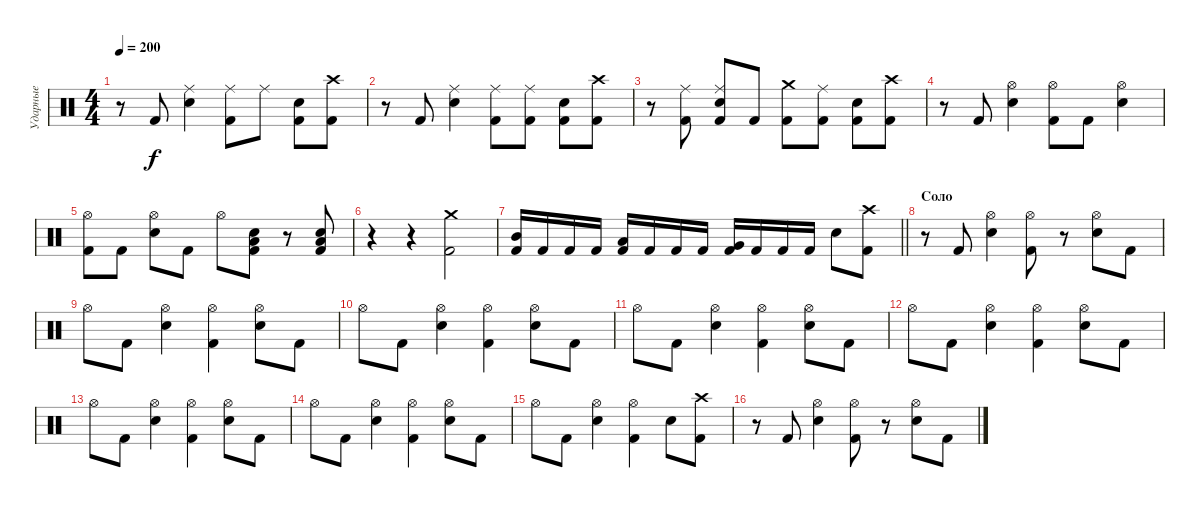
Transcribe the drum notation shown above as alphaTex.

\track ("Ударные" "Ударные") {instrument percussion}
\staff {score}
\articulation defaults
\ts (4 4)
\tempo 200
\clef neutral
\ks c
r.8{dy f} "Kick (hit) 2".8 ("Ride (middle)" "Electric Snare (hit)").4 ("Ride (middle)" "Kick (hit) 2").8 "Ride (middle)".8 ("Electric Snare (hit)" "Kick (hit) 2").8 ("Crash high (hit)" "Kick (hit) 2").8 |
r.8 "Kick (hit) 2".8 ("Ride (middle)" "Electric Snare (hit)").4 ("Ride (middle)" "Kick (hit) 2").8 ("Ride (middle)" "Kick (hit) 2").8 ("Electric Snare (hit)" "Kick (hit) 2").8 ("Crash high (hit)" "Kick (hit) 2").8 |
r.8 ("Ride (middle)" "Kick (hit) 2").8 ("Ride (middle)" "Electric Snare (hit)" "Kick (hit) 2").8 "Kick (hit) 2".8 ("Crash medium (hit)" "Kick (hit) 2").8 ("Ride (middle)" "Kick (hit) 2").8 ("Electric Snare (hit)" "Kick (hit) 2").8 ("Crash high (hit)" "Kick (hit) 2").8 |
r.8 "Kick (hit) 2".8 ("Hi-Hat (open)" "Electric Snare (hit)").4 ("Hi-Hat (open)" "Kick (hit) 2").8 "Kick (hit) 2".8 ("Hi-Hat (open)" "Electric Snare (hit)").4 |
("Hi-Hat (open)" "Kick (hit) 2").8 "Kick (hit) 2".8 ("Hi-Hat (open)" "Electric Snare (hit)").8 "Kick (hit) 2".8 "Hi-Hat (open)".8 ("Electric Snare (hit)" "Low Tom (hit)" "Kick (hit) 2").8 r.8 ("Electric Snare (hit)" "Low Tom (hit)" "Kick (hit) 2").8 |
r.4 r.4 ("Crash medium (hit)" "Kick (hit) 2").2 |
\barLineRight lightlight
("Mid Tom (hit)" "Kick (hit) 2").16 "Kick (hit) 2".16 "Kick (hit) 2".16 "Kick (hit) 2".16 ("Low Tom (hit)" "Kick (hit) 2").16 "Kick (hit) 2".16 "Kick (hit) 2".16 "Kick (hit) 2".16 ("Very Low Tom (hit)" "Kick (hit) 2").16 "Kick (hit) 2".16 "Kick (hit) 2".16 "Kick (hit) 2".16 "Electric Snare (hit)".8 ("Crash high (hit)" "Kick (hit) 2").8 |
\section ("" "Соло")
r.8 "Kick (hit) 2".8 ("Hi-Hat (open)" "Electric Snare (hit)").4 ("Hi-Hat (open)" "Kick (hit) 2").8 r.8 ("Hi-Hat (open)" "Electric Snare (hit)").8 "Kick (hit) 2".8 |
"Hi-Hat (open)".8 "Kick (hit) 2".8 ("Hi-Hat (open)" "Electric Snare (hit)").4 ("Hi-Hat (open)" "Kick (hit) 2").4 ("Hi-Hat (open)" "Electric Snare (hit)").8 "Kick (hit) 2".8 |
"Hi-Hat (open)".8 "Kick (hit) 2".8 ("Hi-Hat (open)" "Electric Snare (hit)").4 ("Hi-Hat (open)" "Kick (hit) 2").4 ("Hi-Hat (open)" "Electric Snare (hit)").8 "Kick (hit) 2".8 |
"Hi-Hat (open)".8 "Kick (hit) 2".8 ("Hi-Hat (open)" "Electric Snare (hit)").4 ("Hi-Hat (open)" "Kick (hit) 2").4 ("Hi-Hat (open)" "Electric Snare (hit)").8 "Kick (hit) 2".8 |
"Hi-Hat (open)".8 "Kick (hit) 2".8 ("Hi-Hat (open)" "Electric Snare (hit)").4 ("Hi-Hat (open)" "Kick (hit) 2").4 ("Hi-Hat (open)" "Electric Snare (hit)").8 "Kick (hit) 2".8 |
"Hi-Hat (open)".8 "Kick (hit) 2".8 ("Hi-Hat (open)" "Electric Snare (hit)").4 ("Hi-Hat (open)" "Kick (hit) 2").4 ("Hi-Hat (open)" "Electric Snare (hit)").8 "Kick (hit) 2".8 |
"Hi-Hat (open)".8 "Kick (hit) 2".8 ("Hi-Hat (open)" "Electric Snare (hit)").4 ("Hi-Hat (open)" "Kick (hit) 2").4 ("Hi-Hat (open)" "Electric Snare (hit)").8 "Kick (hit) 2".8 |
"Hi-Hat (open)".8 "Kick (hit) 2".8 ("Hi-Hat (open)" "Electric Snare (hit)").4 ("Hi-Hat (open)" "Kick (hit) 2").4 "Electric Snare (hit)".8 ("Crash high (hit)" "Kick (hit) 2").8 |
r.8 "Kick (hit) 2".8 ("Hi-Hat (open)" "Electric Snare (hit)").4 ("Hi-Hat (open)" "Kick (hit) 2").8 r.8 ("Hi-Hat (open)" "Electric Snare (hit)").8 "Kick (hit) 2".8
